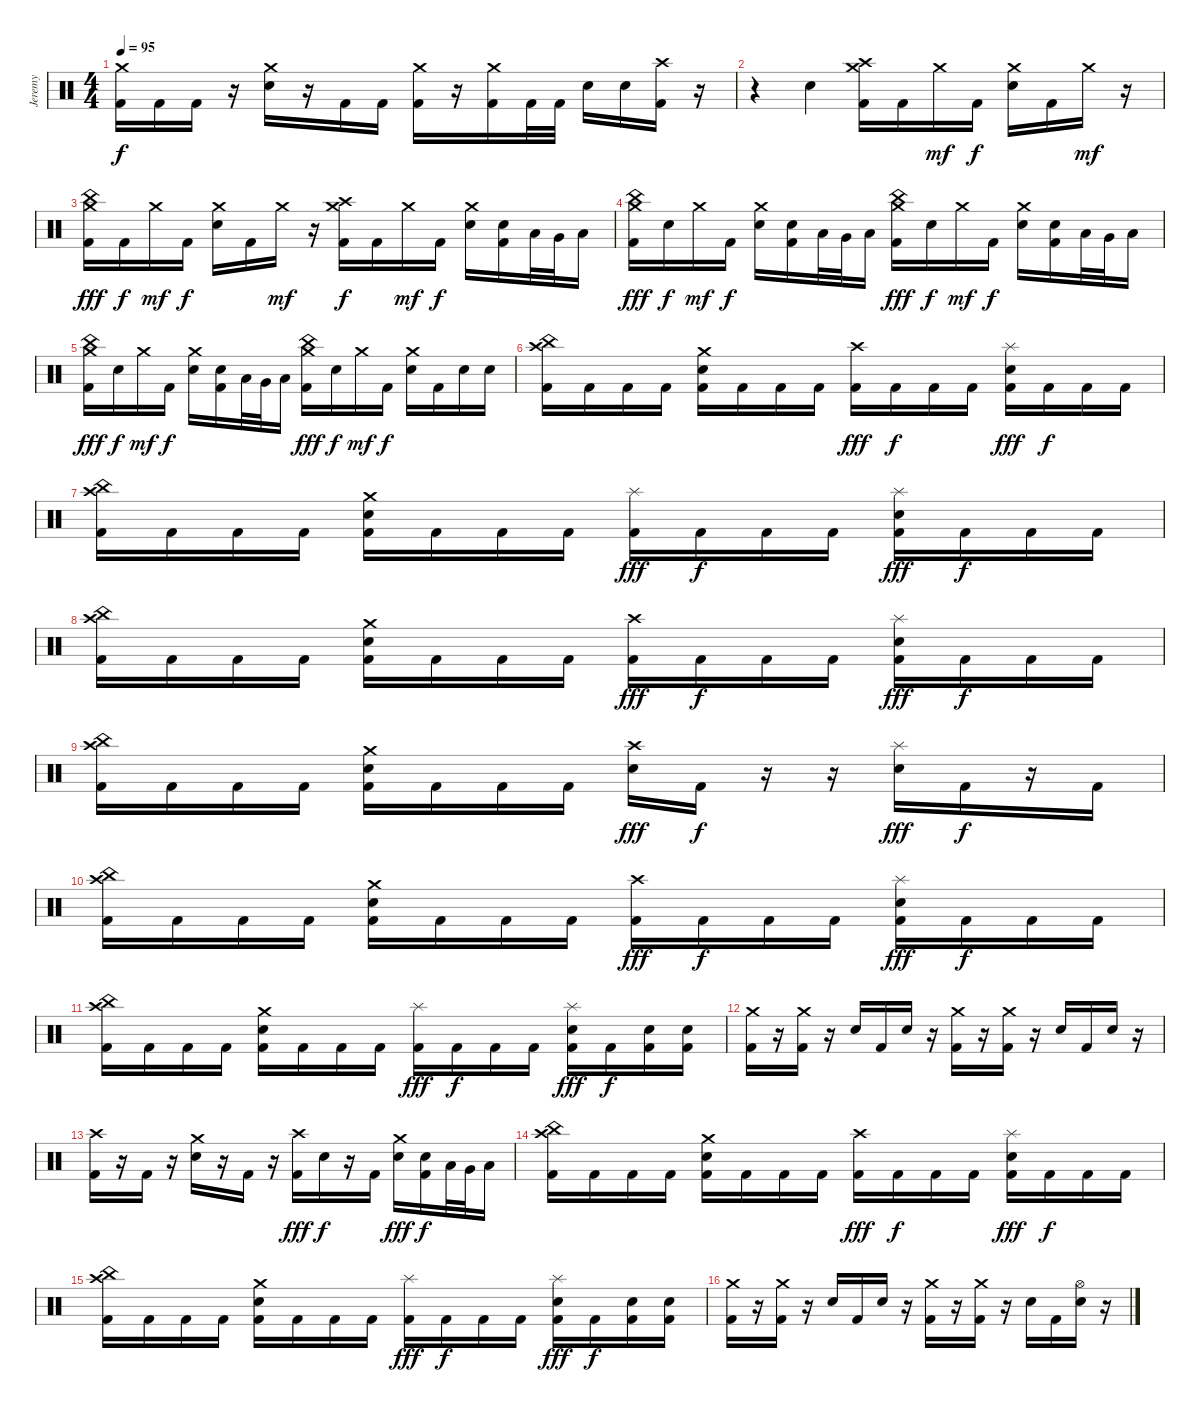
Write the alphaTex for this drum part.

\track ("Jeremy" "Jeremy") {instrument percussion}
\staff {score}
\articulation defaults
\ts (4 4)
\tempo 95
\clef neutral
\ks c
("Crash medium (hit)" "Kick (hit) 2").16{dy f} "Kick (hit) 2".16 "Kick (hit) 2".16 r.16 ("Crash medium (hit)" "Electric Snare (hit)").16 r.16 "Kick (hit) 2".16 "Kick (hit) 2".16 ("Crash medium (hit)" "Kick (hit) 2").16 r.16 ("Crash medium (hit)" "Kick (hit) 2").16 "Kick (hit) 2".32 "Kick (hit) 2".32 "Electric Snare (hit)".16 "Electric Snare (hit)".16 ("Crash high (hit)" "Kick (hit) 2").16 r.16 |
r.4 "Electric Snare (hit)".4 ("Crash medium (hit)" "Crash high (hit)" "Kick (hit) 2").16 "Kick (hit) 2".16 "Crash medium (hit)".16{dy mf} "Kick (hit) 2".16{dy f} ("Crash medium (hit)" "Electric Snare (hit)").16 "Kick (hit) 2".16 "Crash medium (hit)".16{dy mf} r.16 |
("China (hit)" "Crash medium (hit)" "Kick (hit) 2").16{dy fff} "Kick (hit) 2".16{dy f} "Crash medium (hit)".16{dy mf} "Kick (hit) 2".16{dy f} ("Crash medium (hit)" "Electric Snare (hit)").16 "Kick (hit) 2".16 "Crash medium (hit)".16{dy mf} r.16 ("Crash high (hit)" "Crash medium (hit)" "Kick (hit) 2").16{dy f} "Kick (hit) 2".16 "Crash medium (hit)".16{dy mf} "Kick (hit) 2".16{dy f} ("Crash medium (hit)" "Electric Snare (hit)").16 ("Electric Snare (hit)" "Kick (hit) 2").16 "Low Tom (hit)".32 "Very Low Tom (hit)".32 "Low Floor Tom (hit)".16 |
("China (hit)" "Crash medium (hit)" "Kick (hit) 2").16{dy fff} "Electric Snare (hit)".16{dy f} "Crash medium (hit)".16{dy mf} "Kick (hit) 2".16{dy f} ("Crash medium (hit)" "Electric Snare (hit)").16 ("Electric Snare (hit)" "Kick (hit) 2").16 "Low Tom (hit)".32 "Very Low Tom (hit)".32 "Low Floor Tom (hit)".16 ("China (hit)" "Crash medium (hit)" "Kick (hit) 2").16{dy fff} "Electric Snare (hit)".16{dy f} "Crash medium (hit)".16{dy mf} "Kick (hit) 2".16{dy f} ("Crash medium (hit)" "Electric Snare (hit)").16 ("Electric Snare (hit)" "Kick (hit) 2").16 "Low Tom (hit)".32 "Very Low Tom (hit)".32 "Low Floor Tom (hit)".16 |
("China (hit)" "Crash medium (hit)" "Kick (hit) 2").16{dy fff} "Electric Snare (hit)".16{dy f} "Crash medium (hit)".16{dy mf} "Kick (hit) 2".16{dy f} ("Crash medium (hit)" "Electric Snare (hit)").16 ("Electric Snare (hit)" "Kick (hit) 2").16 "Low Tom (hit)".32 "Very Low Tom (hit)".32 "Low Floor Tom (hit)".16 ("China (hit)" "Crash medium (hit)" "Kick (hit) 2").16{dy fff} "Electric Snare (hit)".16{dy f} "Crash medium (hit)".16{dy mf} "Kick (hit) 2".16{dy f} ("Crash medium (hit)" "Electric Snare (hit)").16 "Kick (hit) 2".16 "Electric Snare (hit)".16 "Electric Snare (hit)".16 |
("Crash high (hit)" "China (hit)" "Kick (hit) 2").16 "Kick (hit) 2".16 "Kick (hit) 2".16 "Kick (hit) 2".16 ("Crash medium (hit)" "Electric Snare (hit)" "Kick (hit) 2").16 "Kick (hit) 2".16 "Kick (hit) 2".16 "Kick (hit) 2".16 ("Crash high (hit)" "Kick (hit) 2").16{dy fff} "Kick (hit) 2".16{dy f} "Kick (hit) 2".16 "Kick (hit) 2".16 ("Splash (hit)" "Electric Snare (hit)" "Kick (hit) 2").16{dy fff} "Kick (hit) 2".16{dy f} "Kick (hit) 2".16 "Kick (hit) 2".16 |
("Crash high (hit)" "China (hit)" "Kick (hit) 2").16 "Kick (hit) 2".16 "Kick (hit) 2".16 "Kick (hit) 2".16 ("Crash medium (hit)" "Electric Snare (hit)" "Kick (hit) 2").16 "Kick (hit) 2".16 "Kick (hit) 2".16 "Kick (hit) 2".16 ("Splash (hit)" "Kick (hit) 2").16{dy fff} "Kick (hit) 2".16{dy f} "Kick (hit) 2".16 "Kick (hit) 2".16 ("Splash (hit)" "Electric Snare (hit)" "Kick (hit) 2").16{dy fff} "Kick (hit) 2".16{dy f} "Kick (hit) 2".16 "Kick (hit) 2".16 |
("Crash high (hit)" "China (hit)" "Kick (hit) 2").16 "Kick (hit) 2".16 "Kick (hit) 2".16 "Kick (hit) 2".16 ("Crash medium (hit)" "Electric Snare (hit)" "Kick (hit) 2").16 "Kick (hit) 2".16 "Kick (hit) 2".16 "Kick (hit) 2".16 ("Crash high (hit)" "Kick (hit) 2").16{dy fff} "Kick (hit) 2".16{dy f} "Kick (hit) 2".16 "Kick (hit) 2".16 ("Splash (hit)" "Electric Snare (hit)" "Kick (hit) 2").16{dy fff} "Kick (hit) 2".16{dy f} "Kick (hit) 2".16 "Kick (hit) 2".16 |
("Crash high (hit)" "China (hit)" "Kick (hit) 2").16 "Kick (hit) 2".16 "Kick (hit) 2".16 "Kick (hit) 2".16 ("Crash medium (hit)" "Electric Snare (hit)" "Kick (hit) 2").16 "Kick (hit) 2".16 "Kick (hit) 2".16 "Kick (hit) 2".16 ("Crash high (hit)" "Electric Snare (hit)").16{dy fff} "Kick (hit) 2".16{dy f} r.16 r.16 ("Splash (hit)" "Electric Snare (hit)").16{dy fff} "Kick (hit) 2".16{dy f} r.16 "Kick (hit) 2".16 |
("Crash high (hit)" "China (hit)" "Kick (hit) 2").16 "Kick (hit) 2".16 "Kick (hit) 2".16 "Kick (hit) 2".16 ("Crash medium (hit)" "Electric Snare (hit)" "Kick (hit) 2").16 "Kick (hit) 2".16 "Kick (hit) 2".16 "Kick (hit) 2".16 ("Crash high (hit)" "Kick (hit) 2").16{dy fff} "Kick (hit) 2".16{dy f} "Kick (hit) 2".16 "Kick (hit) 2".16 ("Splash (hit)" "Electric Snare (hit)" "Kick (hit) 2").16{dy fff} "Kick (hit) 2".16{dy f} "Kick (hit) 2".16 "Kick (hit) 2".16 |
("Crash high (hit)" "China (hit)" "Kick (hit) 2").16 "Kick (hit) 2".16 "Kick (hit) 2".16 "Kick (hit) 2".16 ("Crash medium (hit)" "Electric Snare (hit)" "Kick (hit) 2").16 "Kick (hit) 2".16 "Kick (hit) 2".16 "Kick (hit) 2".16 ("Splash (hit)" "Kick (hit) 2").16{dy fff} "Kick (hit) 2".16{dy f} "Kick (hit) 2".16 "Kick (hit) 2".16 ("Splash (hit)" "Electric Snare (hit)" "Kick (hit) 2").16{dy fff} "Kick (hit) 2".16{dy f} ("Electric Snare (hit)" "Kick (hit) 2").16 ("Electric Snare (hit)" "Kick (hit) 2").16 |
("Crash medium (hit)" "Kick (hit) 2").16 r.16 ("Crash medium (hit)" "Kick (hit) 2").16 r.16 "Electric Snare (hit)".16 "Kick (hit) 2".16 "Electric Snare (hit)".16 r.16 ("Crash medium (hit)" "Kick (hit) 2").16 r.16 ("Crash medium (hit)" "Kick (hit) 2").16 r.16 "Electric Snare (hit)".16 "Kick (hit) 2".16 "Electric Snare (hit)".16 r.16 |
("Crash high (hit)" "Kick (hit) 2").16 r.16 "Kick (hit) 2".16 r.16 ("Crash medium (hit)" "Electric Snare (hit)").16 r.16 "Kick (hit) 2".16 r.16 ("Crash high (hit)" "Kick (hit) 2").16{dy fff} "Electric Snare (hit)".16{dy f} r.16 "Kick (hit) 2".16 ("Crash medium (hit)" "Electric Snare (hit)").16{dy fff} ("Electric Snare (hit)" "Kick (hit) 2").16{dy f} "Low Tom (hit)".32 "Very Low Tom (hit)".32 "Low Floor Tom (hit)".16 |
("Crash high (hit)" "China (hit)" "Kick (hit) 2").16 "Kick (hit) 2".16 "Kick (hit) 2".16 "Kick (hit) 2".16 ("Crash medium (hit)" "Electric Snare (hit)" "Kick (hit) 2").16 "Kick (hit) 2".16 "Kick (hit) 2".16 "Kick (hit) 2".16 ("Crash high (hit)" "Kick (hit) 2").16{dy fff} "Kick (hit) 2".16{dy f} "Kick (hit) 2".16 "Kick (hit) 2".16 ("Splash (hit)" "Electric Snare (hit)" "Kick (hit) 2").16{dy fff} "Kick (hit) 2".16{dy f} "Kick (hit) 2".16 "Kick (hit) 2".16 |
("Crash high (hit)" "China (hit)" "Kick (hit) 2").16 "Kick (hit) 2".16 "Kick (hit) 2".16 "Kick (hit) 2".16 ("Crash medium (hit)" "Electric Snare (hit)" "Kick (hit) 2").16 "Kick (hit) 2".16 "Kick (hit) 2".16 "Kick (hit) 2".16 ("Splash (hit)" "Kick (hit) 2").16{dy fff} "Kick (hit) 2".16{dy f} "Kick (hit) 2".16 "Kick (hit) 2".16 ("Splash (hit)" "Electric Snare (hit)" "Kick (hit) 2").16{dy fff} "Kick (hit) 2".16{dy f} ("Electric Snare (hit)" "Kick (hit) 2").16 ("Electric Snare (hit)" "Kick (hit) 2").16 |
("Crash medium (hit)" "Kick (hit) 2").16 r.16 ("Crash medium (hit)" "Kick (hit) 2").16 r.16 "Electric Snare (hit)".16 "Kick (hit) 2".16 "Electric Snare (hit)".16 r.16 ("Crash medium (hit)" "Kick (hit) 2").16 r.16 ("Crash medium (hit)" "Kick (hit) 2").16 r.16 "Electric Snare (hit)".16 "Kick (hit) 2".16 ("Hi-Hat (open)" "Electric Snare (hit)").16 r.16
